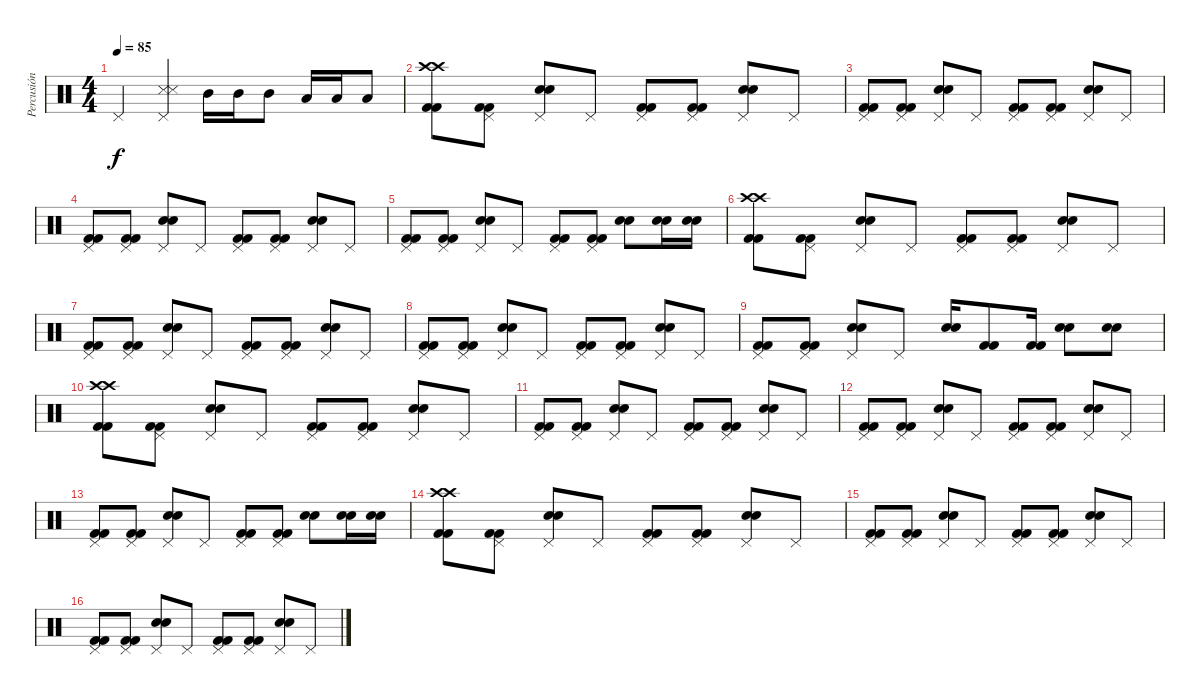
\track ("Percusión" "Percusión") {instrument percussion}
\staff {score}
\articulation defaults
\ts (4 4)
\tempo 85
\clef neutral
\ks c "Pedal Hi-Hat (hit)".4{dy f}
("Pedal Hi-Hat (hit)" "Snare (side stick) 3" "Snare (side stick) 3").4 "Mid Tom (hit)".16 "Mid Tom (hit)".16 "Mid Tom (hit)".8 "Low Tom (hit)".16 "Low Tom (hit)".16 "Low Tom (hit)".8 |
("Kick (hit) 2" "Kick (hit) 2" "Crash high (hit)" "Crash high (hit)").8 ("Kick (hit) 2" "Kick (hit) 2" "Pedal Hi-Hat (hit)").8 ("Electric Snare (hit)" "Electric Snare (hit)" "Pedal Hi-Hat (hit)").8 "Pedal Hi-Hat (hit)".8 ("Kick (hit) 2" "Kick (hit) 2" "Pedal Hi-Hat (hit)").8 ("Kick (hit) 2" "Kick (hit) 2" "Pedal Hi-Hat (hit)").8 ("Electric Snare (hit)" "Electric Snare (hit)" "Pedal Hi-Hat (hit)").8 "Pedal Hi-Hat (hit)".8 |
("Kick (hit) 2" "Kick (hit) 2" "Pedal Hi-Hat (hit)").8 ("Kick (hit) 2" "Kick (hit) 2" "Pedal Hi-Hat (hit)").8 ("Electric Snare (hit)" "Electric Snare (hit)" "Pedal Hi-Hat (hit)").8 "Pedal Hi-Hat (hit)".8 ("Kick (hit) 2" "Kick (hit) 2" "Pedal Hi-Hat (hit)").8 ("Kick (hit) 2" "Kick (hit) 2" "Pedal Hi-Hat (hit)").8 ("Electric Snare (hit)" "Electric Snare (hit)" "Pedal Hi-Hat (hit)").8 "Pedal Hi-Hat (hit)".8 |
("Kick (hit) 2" "Kick (hit) 2" "Pedal Hi-Hat (hit)").8 ("Kick (hit) 2" "Kick (hit) 2" "Pedal Hi-Hat (hit)").8 ("Electric Snare (hit)" "Electric Snare (hit)" "Pedal Hi-Hat (hit)").8 "Pedal Hi-Hat (hit)".8 ("Kick (hit) 2" "Kick (hit) 2" "Pedal Hi-Hat (hit)").8 ("Kick (hit) 2" "Kick (hit) 2" "Pedal Hi-Hat (hit)").8 ("Electric Snare (hit)" "Electric Snare (hit)" "Pedal Hi-Hat (hit)").8 "Pedal Hi-Hat (hit)".8 |
("Kick (hit) 2" "Kick (hit) 2" "Pedal Hi-Hat (hit)").8 ("Kick (hit) 2" "Kick (hit) 2" "Pedal Hi-Hat (hit)").8 ("Electric Snare (hit)" "Electric Snare (hit)" "Pedal Hi-Hat (hit)").8 "Pedal Hi-Hat (hit)".8 ("Kick (hit) 2" "Kick (hit) 2" "Pedal Hi-Hat (hit)").8 ("Kick (hit) 2" "Kick (hit) 2" "Pedal Hi-Hat (hit)").8 ("Electric Snare (hit)" "Electric Snare (hit)").8 ("Electric Snare (hit)" "Electric Snare (hit)").16 ("Electric Snare (hit)" "Electric Snare (hit)").16 |
("Kick (hit) 2" "Kick (hit) 2" "Crash high (hit)" "Crash high (hit)").8 ("Kick (hit) 2" "Kick (hit) 2" "Pedal Hi-Hat (hit)").8 ("Electric Snare (hit)" "Electric Snare (hit)" "Pedal Hi-Hat (hit)").8 "Pedal Hi-Hat (hit)".8 ("Kick (hit) 2" "Kick (hit) 2" "Pedal Hi-Hat (hit)").8 ("Kick (hit) 2" "Kick (hit) 2" "Pedal Hi-Hat (hit)").8 ("Electric Snare (hit)" "Electric Snare (hit)" "Pedal Hi-Hat (hit)").8 "Pedal Hi-Hat (hit)".8 |
("Kick (hit) 2" "Kick (hit) 2" "Pedal Hi-Hat (hit)").8 ("Kick (hit) 2" "Kick (hit) 2" "Pedal Hi-Hat (hit)").8 ("Electric Snare (hit)" "Electric Snare (hit)" "Pedal Hi-Hat (hit)").8 "Pedal Hi-Hat (hit)".8 ("Kick (hit) 2" "Kick (hit) 2" "Pedal Hi-Hat (hit)").8 ("Kick (hit) 2" "Kick (hit) 2" "Pedal Hi-Hat (hit)").8 ("Electric Snare (hit)" "Electric Snare (hit)" "Pedal Hi-Hat (hit)").8 "Pedal Hi-Hat (hit)".8 |
("Kick (hit) 2" "Kick (hit) 2" "Pedal Hi-Hat (hit)").8 ("Kick (hit) 2" "Kick (hit) 2" "Pedal Hi-Hat (hit)").8 ("Electric Snare (hit)" "Electric Snare (hit)" "Pedal Hi-Hat (hit)").8 "Pedal Hi-Hat (hit)".8 ("Kick (hit) 2" "Kick (hit) 2" "Pedal Hi-Hat (hit)").8 ("Kick (hit) 2" "Kick (hit) 2" "Pedal Hi-Hat (hit)").8 ("Electric Snare (hit)" "Electric Snare (hit)" "Pedal Hi-Hat (hit)").8 "Pedal Hi-Hat (hit)".8 |
("Kick (hit) 2" "Kick (hit) 2" "Pedal Hi-Hat (hit)").8 ("Kick (hit) 2" "Kick (hit) 2" "Pedal Hi-Hat (hit)").8 ("Electric Snare (hit)" "Electric Snare (hit)" "Pedal Hi-Hat (hit)").8 "Pedal Hi-Hat (hit)".8 ("Electric Snare (hit)" "Electric Snare (hit)").16 ("Kick (hit) 2" "Kick (hit) 2").8 ("Kick (hit) 2" "Kick (hit) 2").16 ("Electric Snare (hit)" "Electric Snare (hit)").8 ("Electric Snare (hit)" "Electric Snare (hit)").8 |
("Kick (hit) 2" "Kick (hit) 2" "Crash high (hit)" "Crash high (hit)").8 ("Kick (hit) 2" "Kick (hit) 2" "Pedal Hi-Hat (hit)").8 ("Electric Snare (hit)" "Electric Snare (hit)" "Pedal Hi-Hat (hit)").8 "Pedal Hi-Hat (hit)".8 ("Kick (hit) 2" "Kick (hit) 2" "Pedal Hi-Hat (hit)").8 ("Kick (hit) 2" "Kick (hit) 2" "Pedal Hi-Hat (hit)").8 ("Electric Snare (hit)" "Electric Snare (hit)" "Pedal Hi-Hat (hit)").8 "Pedal Hi-Hat (hit)".8 |
("Kick (hit) 2" "Kick (hit) 2" "Pedal Hi-Hat (hit)").8 ("Kick (hit) 2" "Kick (hit) 2" "Pedal Hi-Hat (hit)").8 ("Electric Snare (hit)" "Electric Snare (hit)" "Pedal Hi-Hat (hit)").8 "Pedal Hi-Hat (hit)".8 ("Kick (hit) 2" "Kick (hit) 2" "Pedal Hi-Hat (hit)").8 ("Kick (hit) 2" "Kick (hit) 2" "Pedal Hi-Hat (hit)").8 ("Electric Snare (hit)" "Electric Snare (hit)" "Pedal Hi-Hat (hit)").8 "Pedal Hi-Hat (hit)".8 |
("Kick (hit) 2" "Kick (hit) 2" "Pedal Hi-Hat (hit)").8 ("Kick (hit) 2" "Kick (hit) 2" "Pedal Hi-Hat (hit)").8 ("Electric Snare (hit)" "Electric Snare (hit)" "Pedal Hi-Hat (hit)").8 "Pedal Hi-Hat (hit)".8 ("Kick (hit) 2" "Kick (hit) 2" "Pedal Hi-Hat (hit)").8 ("Kick (hit) 2" "Kick (hit) 2" "Pedal Hi-Hat (hit)").8 ("Electric Snare (hit)" "Electric Snare (hit)" "Pedal Hi-Hat (hit)").8 "Pedal Hi-Hat (hit)".8 |
("Kick (hit) 2" "Kick (hit) 2" "Pedal Hi-Hat (hit)").8 ("Kick (hit) 2" "Kick (hit) 2" "Pedal Hi-Hat (hit)").8 ("Electric Snare (hit)" "Electric Snare (hit)" "Pedal Hi-Hat (hit)").8 "Pedal Hi-Hat (hit)".8 ("Kick (hit) 2" "Kick (hit) 2" "Pedal Hi-Hat (hit)").8 ("Kick (hit) 2" "Kick (hit) 2" "Pedal Hi-Hat (hit)").8 ("Electric Snare (hit)" "Electric Snare (hit)").8 ("Electric Snare (hit)" "Electric Snare (hit)").16 ("Electric Snare (hit)" "Electric Snare (hit)").16 |
("Kick (hit) 2" "Kick (hit) 2" "Crash high (hit)" "Crash high (hit)").8 ("Kick (hit) 2" "Kick (hit) 2" "Pedal Hi-Hat (hit)").8 ("Electric Snare (hit)" "Electric Snare (hit)" "Pedal Hi-Hat (hit)").8 "Pedal Hi-Hat (hit)".8 ("Kick (hit) 2" "Kick (hit) 2" "Pedal Hi-Hat (hit)").8 ("Kick (hit) 2" "Kick (hit) 2" "Pedal Hi-Hat (hit)").8 ("Electric Snare (hit)" "Electric Snare (hit)" "Pedal Hi-Hat (hit)").8 "Pedal Hi-Hat (hit)".8 |
("Kick (hit) 2" "Kick (hit) 2" "Pedal Hi-Hat (hit)").8 ("Kick (hit) 2" "Kick (hit) 2" "Pedal Hi-Hat (hit)").8 ("Electric Snare (hit)" "Electric Snare (hit)" "Pedal Hi-Hat (hit)").8 "Pedal Hi-Hat (hit)".8 ("Kick (hit) 2" "Kick (hit) 2" "Pedal Hi-Hat (hit)").8 ("Kick (hit) 2" "Kick (hit) 2" "Pedal Hi-Hat (hit)").8 ("Electric Snare (hit)" "Electric Snare (hit)" "Pedal Hi-Hat (hit)").8 "Pedal Hi-Hat (hit)".8 |
("Kick (hit) 2" "Kick (hit) 2" "Pedal Hi-Hat (hit)").8 ("Kick (hit) 2" "Kick (hit) 2" "Pedal Hi-Hat (hit)").8 ("Electric Snare (hit)" "Electric Snare (hit)" "Pedal Hi-Hat (hit)").8 "Pedal Hi-Hat (hit)".8 ("Kick (hit) 2" "Kick (hit) 2" "Pedal Hi-Hat (hit)").8 ("Kick (hit) 2" "Kick (hit) 2" "Pedal Hi-Hat (hit)").8 ("Electric Snare (hit)" "Electric Snare (hit)" "Pedal Hi-Hat (hit)").8 "Pedal Hi-Hat (hit)".8
